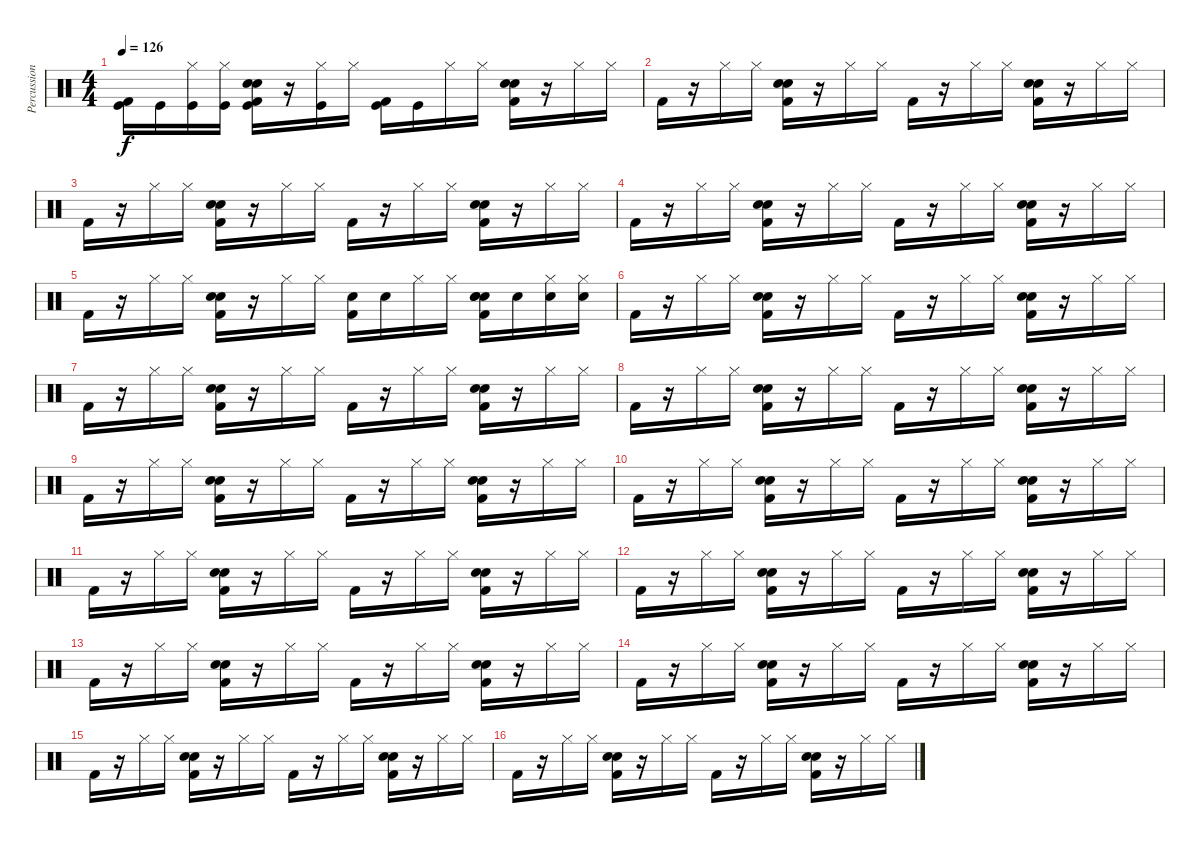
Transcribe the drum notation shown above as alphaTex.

\track ("Percussion" "Percussion") {instrument percussion}
\staff {score}
\articulation defaults
\ts (4 4)
\tempo 126
\clef neutral
\ks c
("Kick (hit)" "Kick (hit) 2").16{dy f} "Kick (hit)".16 ("Hi-Hat (closed)" "Kick (hit)").16 ("Hi-Hat (closed)" "Kick (hit)").16 ("Kick (hit)" "Hand Clap (hit)" "Electric Snare (hit)" "Kick (hit) 2").16 r.16 ("Hi-Hat (closed)" "Kick (hit)").16 "Hi-Hat (closed)".16 ("Kick (hit)" "Kick (hit) 2").16 "Kick (hit)".16 "Hi-Hat (closed)".16 "Hi-Hat (closed)".16 ("Hand Clap (hit)" "Electric Snare (hit)" "Kick (hit) 2").16 r.16 "Hi-Hat (closed)".16 "Hi-Hat (closed)".16 |
"Kick (hit) 2".16 r.16 "Hi-Hat (closed)".16 "Hi-Hat (closed)".16 ("Hand Clap (hit)" "Electric Snare (hit)" "Kick (hit) 2").16 r.16 "Hi-Hat (closed)".16 "Hi-Hat (closed)".16 "Kick (hit) 2".16 r.16 "Hi-Hat (closed)".16 "Hi-Hat (closed)".16 ("Hand Clap (hit)" "Electric Snare (hit)" "Kick (hit) 2").16 r.16 "Hi-Hat (closed)".16 "Hi-Hat (closed)".16 |
"Kick (hit) 2".16 r.16 "Hi-Hat (closed)".16 "Hi-Hat (closed)".16 ("Hand Clap (hit)" "Electric Snare (hit)" "Kick (hit) 2").16 r.16 "Hi-Hat (closed)".16 "Hi-Hat (closed)".16 "Kick (hit) 2".16 r.16 "Hi-Hat (closed)".16 "Hi-Hat (closed)".16 ("Hand Clap (hit)" "Electric Snare (hit)" "Kick (hit) 2").16 r.16 "Hi-Hat (closed)".16 "Hi-Hat (closed)".16 |
"Kick (hit) 2".16 r.16 "Hi-Hat (closed)".16 "Hi-Hat (closed)".16 ("Hand Clap (hit)" "Electric Snare (hit)" "Kick (hit) 2").16 r.16 "Hi-Hat (closed)".16 "Hi-Hat (closed)".16 "Kick (hit) 2".16 r.16 "Hi-Hat (closed)".16 "Hi-Hat (closed)".16 ("Hand Clap (hit)" "Electric Snare (hit)" "Kick (hit) 2").16 r.16 "Hi-Hat (closed)".16 "Hi-Hat (closed)".16 |
"Kick (hit) 2".16 r.16 "Hi-Hat (closed)".16 "Hi-Hat (closed)".16 ("Hand Clap (hit)" "Electric Snare (hit)" "Kick (hit) 2").16 r.16 "Hi-Hat (closed)".16 "Hi-Hat (closed)".16 ("Snare (hit) 2" "Kick (hit) 2").16 "Snare (hit) 2".16 "Hi-Hat (closed)".16 "Hi-Hat (closed)".16 ("Snare (hit) 2" "Hand Clap (hit)" "Electric Snare (hit)" "Kick (hit) 2").16 "Snare (hit) 2".16 ("Hi-Hat (closed)" "Snare (hit) 2").16 ("Hi-Hat (closed)" "Snare (hit) 2").16 |
"Kick (hit) 2".16 r.16 "Hi-Hat (closed)".16 "Hi-Hat (closed)".16 ("Hand Clap (hit)" "Electric Snare (hit)" "Kick (hit) 2").16 r.16 "Hi-Hat (closed)".16 "Hi-Hat (closed)".16 "Kick (hit) 2".16 r.16 "Hi-Hat (closed)".16 "Hi-Hat (closed)".16 ("Hand Clap (hit)" "Electric Snare (hit)" "Kick (hit) 2").16 r.16 "Hi-Hat (closed)".16 "Hi-Hat (closed)".16 |
"Kick (hit) 2".16 r.16 "Hi-Hat (closed)".16 "Hi-Hat (closed)".16 ("Hand Clap (hit)" "Electric Snare (hit)" "Kick (hit) 2").16 r.16 "Hi-Hat (closed)".16 "Hi-Hat (closed)".16 "Kick (hit) 2".16 r.16 "Hi-Hat (closed)".16 "Hi-Hat (closed)".16 ("Hand Clap (hit)" "Electric Snare (hit)" "Kick (hit) 2").16 r.16 "Hi-Hat (closed)".16 "Hi-Hat (closed)".16 |
"Kick (hit) 2".16 r.16 "Hi-Hat (closed)".16 "Hi-Hat (closed)".16 ("Hand Clap (hit)" "Electric Snare (hit)" "Kick (hit) 2").16 r.16 "Hi-Hat (closed)".16 "Hi-Hat (closed)".16 "Kick (hit) 2".16 r.16 "Hi-Hat (closed)".16 "Hi-Hat (closed)".16 ("Hand Clap (hit)" "Electric Snare (hit)" "Kick (hit) 2").16 r.16 "Hi-Hat (closed)".16 "Hi-Hat (closed)".16 |
"Kick (hit) 2".16 r.16 "Hi-Hat (closed)".16 "Hi-Hat (closed)".16 ("Hand Clap (hit)" "Electric Snare (hit)" "Kick (hit) 2").16 r.16 "Hi-Hat (closed)".16 "Hi-Hat (closed)".16 "Kick (hit) 2".16 r.16 "Hi-Hat (closed)".16 "Hi-Hat (closed)".16 ("Hand Clap (hit)" "Electric Snare (hit)" "Kick (hit) 2").16 r.16 "Hi-Hat (closed)".16 "Hi-Hat (closed)".16 |
"Kick (hit) 2".16 r.16 "Hi-Hat (closed)".16 "Hi-Hat (closed)".16 ("Hand Clap (hit)" "Electric Snare (hit)" "Kick (hit) 2").16 r.16 "Hi-Hat (closed)".16 "Hi-Hat (closed)".16 "Kick (hit) 2".16 r.16 "Hi-Hat (closed)".16 "Hi-Hat (closed)".16 ("Hand Clap (hit)" "Electric Snare (hit)" "Kick (hit) 2").16 r.16 "Hi-Hat (closed)".16 "Hi-Hat (closed)".16 |
"Kick (hit) 2".16 r.16 "Hi-Hat (closed)".16 "Hi-Hat (closed)".16 ("Hand Clap (hit)" "Electric Snare (hit)" "Kick (hit) 2").16 r.16 "Hi-Hat (closed)".16 "Hi-Hat (closed)".16 "Kick (hit) 2".16 r.16 "Hi-Hat (closed)".16 "Hi-Hat (closed)".16 ("Hand Clap (hit)" "Electric Snare (hit)" "Kick (hit) 2").16 r.16 "Hi-Hat (closed)".16 "Hi-Hat (closed)".16 |
"Kick (hit) 2".16 r.16 "Hi-Hat (closed)".16 "Hi-Hat (closed)".16 ("Hand Clap (hit)" "Electric Snare (hit)" "Kick (hit) 2").16 r.16 "Hi-Hat (closed)".16 "Hi-Hat (closed)".16 "Kick (hit) 2".16 r.16 "Hi-Hat (closed)".16 "Hi-Hat (closed)".16 ("Hand Clap (hit)" "Electric Snare (hit)" "Kick (hit) 2").16 r.16 "Hi-Hat (closed)".16 "Hi-Hat (closed)".16 |
"Kick (hit) 2".16 r.16 "Hi-Hat (closed)".16 "Hi-Hat (closed)".16 ("Hand Clap (hit)" "Electric Snare (hit)" "Kick (hit) 2").16 r.16 "Hi-Hat (closed)".16 "Hi-Hat (closed)".16 "Kick (hit) 2".16 r.16 "Hi-Hat (closed)".16 "Hi-Hat (closed)".16 ("Hand Clap (hit)" "Electric Snare (hit)" "Kick (hit) 2").16 r.16 "Hi-Hat (closed)".16 "Hi-Hat (closed)".16 |
"Kick (hit) 2".16 r.16 "Hi-Hat (closed)".16 "Hi-Hat (closed)".16 ("Hand Clap (hit)" "Electric Snare (hit)" "Kick (hit) 2").16 r.16 "Hi-Hat (closed)".16 "Hi-Hat (closed)".16 "Kick (hit) 2".16 r.16 "Hi-Hat (closed)".16 "Hi-Hat (closed)".16 ("Hand Clap (hit)" "Electric Snare (hit)" "Kick (hit) 2").16 r.16 "Hi-Hat (closed)".16 "Hi-Hat (closed)".16 |
"Kick (hit) 2".16 r.16 "Hi-Hat (closed)".16 "Hi-Hat (closed)".16 ("Hand Clap (hit)" "Electric Snare (hit)" "Kick (hit) 2").16 r.16 "Hi-Hat (closed)".16 "Hi-Hat (closed)".16 "Kick (hit) 2".16 r.16 "Hi-Hat (closed)".16 "Hi-Hat (closed)".16 ("Hand Clap (hit)" "Electric Snare (hit)" "Kick (hit) 2").16 r.16 "Hi-Hat (closed)".16 "Hi-Hat (closed)".16 |
"Kick (hit) 2".16 r.16 "Hi-Hat (closed)".16 "Hi-Hat (closed)".16 ("Hand Clap (hit)" "Electric Snare (hit)" "Kick (hit) 2").16 r.16 "Hi-Hat (closed)".16 "Hi-Hat (closed)".16 "Kick (hit) 2".16 r.16 "Hi-Hat (closed)".16 "Hi-Hat (closed)".16 ("Hand Clap (hit)" "Electric Snare (hit)" "Kick (hit) 2").16 r.16 "Hi-Hat (closed)".16 "Hi-Hat (closed)".16
